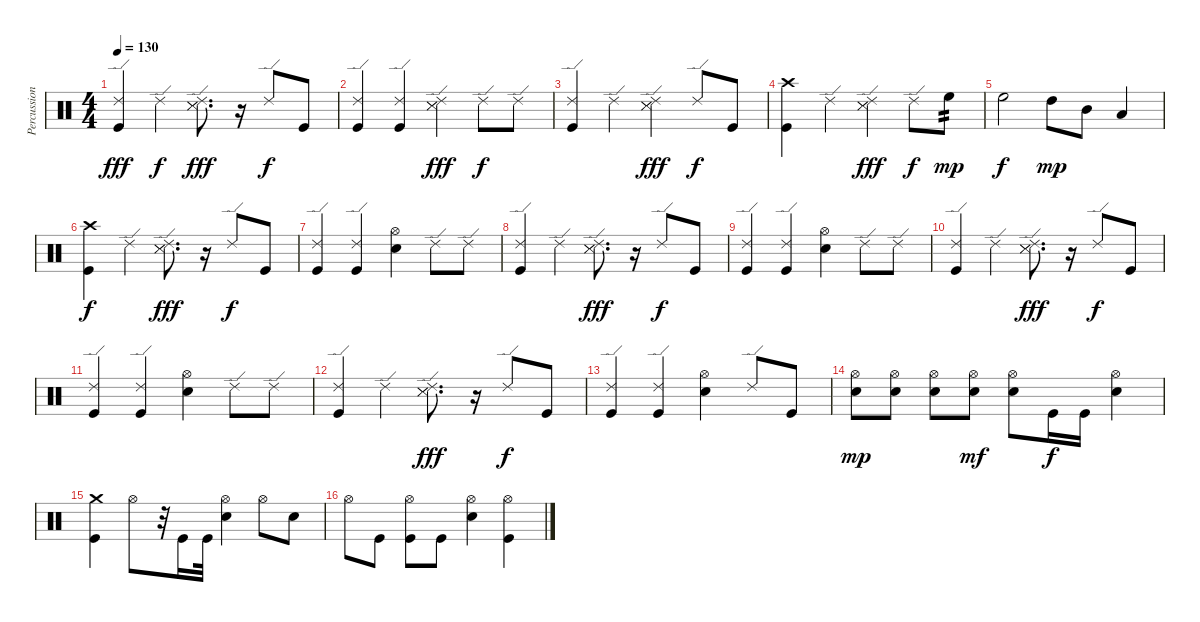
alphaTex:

\track ("Percussion" "Percussion") {instrument percussion}
\staff {score}
\articulation defaults
\ts (4 4)
\tempo 130
\clef neutral
\ks c
("Ride (edge) 2" "Kick (hit)").4{dy fff} "Ride (edge) 2".4{dy f} ("Ride (edge) 2" "Snare (side stick) 3" "Snare (side stick) 3").8{d dy fff} r.16 "Ride (edge) 2".8{dy f} "Kick (hit)".8 |
("Ride (edge) 2" "Kick (hit)").4 ("Ride (edge) 2" "Kick (hit)").4 ("Ride (edge) 2" "Snare (side stick) 3" "Snare (side stick) 3").4{dy fff} "Ride (edge) 2".8{dy f} "Ride (edge) 2".8 |
("Ride (edge) 2" "Kick (hit)").4 "Ride (edge) 2".4 ("Ride (edge) 2" "Snare (side stick) 3" "Snare (side stick) 3").4{dy fff} "Ride (edge) 2".8{dy f} "Kick (hit)".8 |
("Crash high (hit)" "Kick (hit)").4 "Ride (edge) 2".4 ("Ride (edge) 2" "Snare (side stick) 3" "Snare (side stick) 3").4{dy fff} "Ride (edge) 2".8{dy f} "High Floor Tom (hit)".8{tp 2 dy mp} |
"High Floor Tom (hit)".2{dy f} "High Tom (hit)".8{dy mp} "Mid Tom (hit)".8 "Low Tom (hit)".4 |
("Crash high (hit)" "Kick (hit)").4{dy f} "Ride (edge) 2".4 ("Ride (edge) 2" "Snare (side stick) 3" "Snare (side stick) 3").8{d dy fff} r.16 "Ride (edge) 2".8{dy f} "Kick (hit)".8 |
("Ride (edge) 2" "Kick (hit)").4 ("Ride (edge) 2" "Kick (hit)").4 ("Hi-Hat (open)" "Snare (hit) 2").4 "Ride (edge) 2".8 "Ride (edge) 2".8 |
("Ride (edge) 2" "Kick (hit)").4 "Ride (edge) 2".4 ("Ride (edge) 2" "Snare (side stick) 3" "Snare (side stick) 3").8{d dy fff} r.16 "Ride (edge) 2".8{dy f} "Kick (hit)".8 |
("Ride (edge) 2" "Kick (hit)").4 ("Ride (edge) 2" "Kick (hit)").4 ("Hi-Hat (open)" "Snare (hit) 2").4 "Ride (edge) 2".8 "Ride (edge) 2".8 |
("Ride (edge) 2" "Kick (hit)").4 "Ride (edge) 2".4 ("Ride (edge) 2" "Snare (side stick) 3" "Snare (side stick) 3").8{d dy fff} r.16 "Ride (edge) 2".8{dy f} "Kick (hit)".8 |
("Ride (edge) 2" "Kick (hit)").4 ("Ride (edge) 2" "Kick (hit)").4 ("Hi-Hat (open)" "Snare (hit) 2").4 "Ride (edge) 2".8 "Ride (edge) 2".8 |
("Ride (edge) 2" "Kick (hit)").4 "Ride (edge) 2".4 ("Ride (edge) 2" "Snare (side stick) 3" "Snare (side stick) 3").8{d dy fff} r.16 "Ride (edge) 2".8{dy f} "Kick (hit)".8 |
("Ride (edge) 2" "Kick (hit)").4 ("Ride (edge) 2" "Kick (hit)").4 ("Hi-Hat (open)" "Snare (hit) 2").4 "Ride (edge) 2".8 "Kick (hit)".8 |
("Hi-Hat (open)" "Snare (hit) 2").8{dy mp} ("Hi-Hat (open)" "Snare (hit) 2").8 ("Hi-Hat (open)" "Snare (hit) 2").8 ("Hi-Hat (open)" "Snare (hit) 2").8{dy mf} ("Hi-Hat (open)" "Snare (hit) 2").8 "Kick (hit)".16{dy f} "Kick (hit)".16 ("Hi-Hat (open)" "Snare (hit) 2").4 |
("Crash medium (hit)" "Kick (hit)").4 "Hi-Hat (open)".8 r.32 "Kick (hit)".16 "Kick (hit)".32 ("Hi-Hat (open)" "Snare (hit) 2").4 "Hi-Hat (open)".8 "Snare (hit) 2".8 |
"Hi-Hat (open)".8 "Kick (hit)".8 ("Hi-Hat (open)" "Kick (hit)").8 "Kick (hit)".8 ("Hi-Hat (open)" "Snare (hit) 2").4 ("Hi-Hat (open)" "Kick (hit)").4
